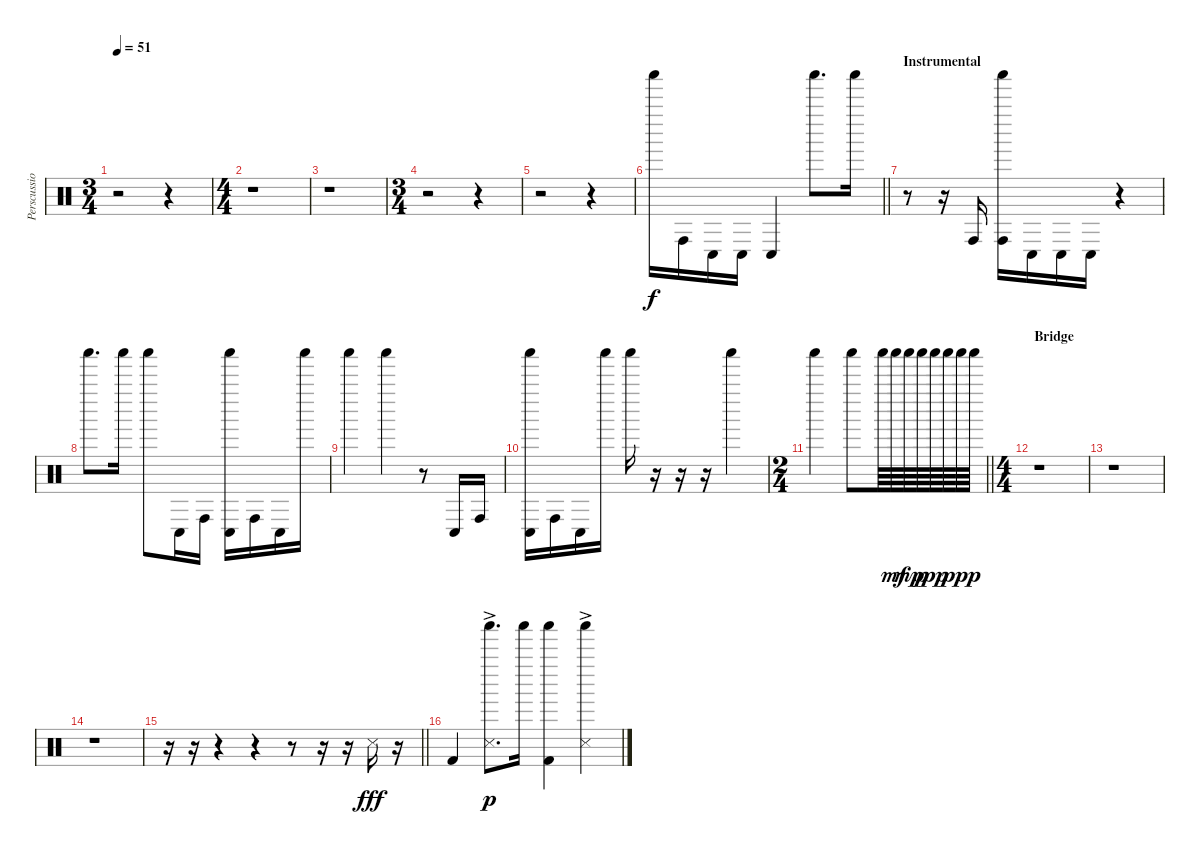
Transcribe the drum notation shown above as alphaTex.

\track ("Perscussion" "Perscussio") {instrument percussion}
\staff {score}
\articulation defaults
\ts (3 4)
\tempo 51
\clef neutral
\ks c
r.2{dy f} r.4 |
\ts (4 4)
r.1 |
r.1 |
\ts (3 4)
r.2 r.4 |
r.2 r.4 |
\barLineRight lightlight "Shaker (hit)".16 "Conga high (hit)".16 "Conga low (hit)".16 "Conga low (hit)".16 "Conga low (hit)".4 "Shaker (hit)".8{d} "Shaker (hit)".16
|
\section ("" "Instrumental")
r.8 r.16 "Conga high (hit)".16 ("Shaker (hit)" "Conga high (hit)").16 "Conga low (hit)".16 "Conga low (hit)".16 "Conga low (hit)".16 r.4 |
"Shaker (hit)".8{d} "Shaker (hit)".16 "Shaker (hit)".8 "Conga low (hit)".16 "Conga high (hit)".16 ("Shaker (hit)" "Conga low (hit)").16 "Conga high (hit)".16 "Conga low (hit)".16 "Shaker (hit)".16 |
"Shaker (hit)".4 "Shaker (hit)".4 r.8 "Conga low (hit)".16 "Conga high (hit)".16 |
("Shaker (hit)" "Conga low (hit)").16 "Conga high (hit)".16 "Conga low (hit)".16 "Shaker (hit)".16 "Shaker (hit)".16 r.16 r.16 r.16 "Shaker (hit)".4 |
\ts (2 4)
\barLineRight lightlight "Shaker (hit)".4 "Shaker (hit)".8 "Shaker (hit)".64 "Shaker (hit)".64{dy mf} "Shaker (hit)".64{dy mp} "Shaker (hit)".64{dy p} "Shaker (hit)".64{dy pp} "Shaker (hit)".64 "Shaker (hit)".64{dy ppp} "Shaker (hit)".64
|
\ts (4 4)
\section ("" "Bridge")
r.1 |
r.1 |
r.1 |
\barLineRight lightlight
r.16 r.16 r.4 r.4 r.8 r.16 r.16 "Snare (side stick) 3".16{dy fff} r.16 |
"Kick (hit) 2".4 ("Snare (side stick) 3"{ac} "Shaker (hit)"{ac}).8{d dy p} "Shaker (hit)".16 ("Kick (hit) 2" "Shaker (hit)").4 ("Snare (side stick) 3"{ac} "Shaker (hit)"{ac}).4
